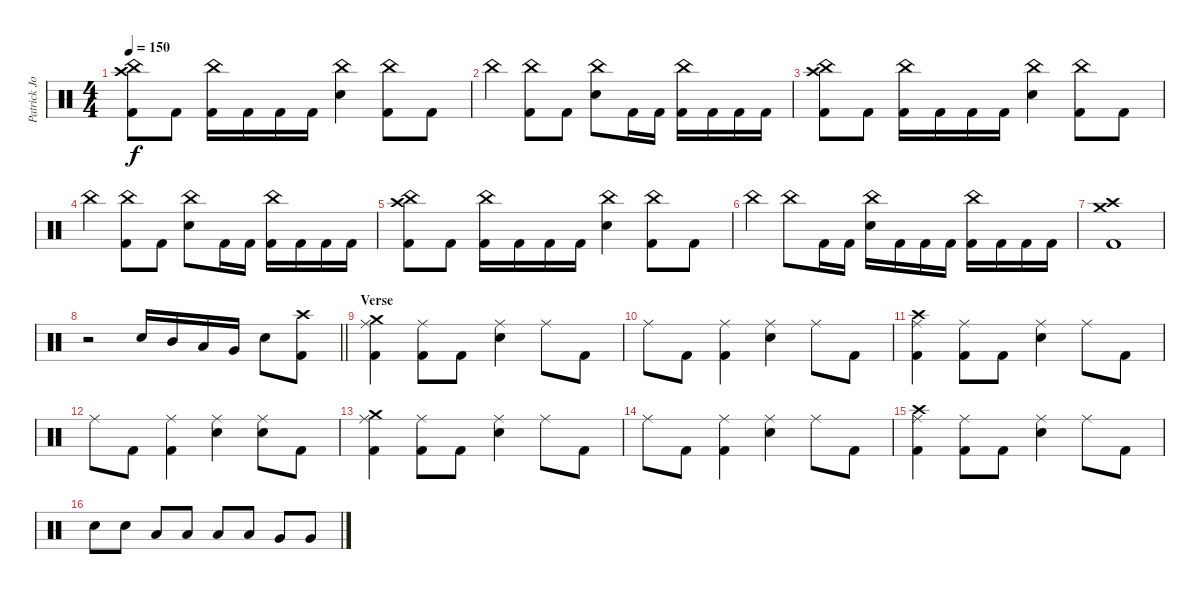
\track ("Patrick Johansson" "Patrick Jo") {instrument percussion}
\staff {score}
\articulation defaults
\ts (4 4)
\tempo 150
\clef neutral
\ks c
("Crash high (hit)" "China (hit)" "Kick (hit) 2").8{dy f} "Kick (hit) 2".8 ("China (hit)" "Kick (hit) 2").16 "Kick (hit) 2".16 "Kick (hit) 2".16 "Kick (hit) 2".16 ("China (hit)" "Snare (hit) 2").4 ("China (hit)" "Kick (hit) 2").8 "Kick (hit) 2".8 |
"China (hit)".4 ("China (hit)" "Kick (hit) 2").8 "Kick (hit) 2".8 ("China (hit)" "Snare (hit) 2").8 "Kick (hit) 2".16 "Kick (hit) 2".16 ("China (hit)" "Kick (hit) 2").16 "Kick (hit) 2".16 "Kick (hit) 2".16 "Kick (hit) 2".16 |
("Crash high (hit)" "China (hit)" "Kick (hit) 2").8 "Kick (hit) 2".8 ("China (hit)" "Kick (hit) 2").16 "Kick (hit) 2".16 "Kick (hit) 2".16 "Kick (hit) 2".16 ("China (hit)" "Snare (hit) 2").4 ("China (hit)" "Kick (hit) 2").8 "Kick (hit) 2".8 |
"China (hit)".4 ("China (hit)" "Kick (hit) 2").8 "Kick (hit) 2".8 ("China (hit)" "Snare (hit) 2").8 "Kick (hit) 2".16 "Kick (hit) 2".16 ("China (hit)" "Kick (hit) 2").16 "Kick (hit) 2".16 "Kick (hit) 2".16 "Kick (hit) 2".16 |
("Crash high (hit)" "China (hit)" "Kick (hit) 2").8 "Kick (hit) 2".8 ("China (hit)" "Kick (hit) 2").16 "Kick (hit) 2".16 "Kick (hit) 2".16 "Kick (hit) 2".16 ("China (hit)" "Snare (hit) 2").4 ("China (hit)" "Kick (hit) 2").8 "Kick (hit) 2".8 |
"China (hit)".4 "China (hit)".8 "Kick (hit) 2".16 "Kick (hit) 2".16 ("China (hit)" "Snare (hit) 2").16 "Kick (hit) 2".16 "Kick (hit) 2".16 "Kick (hit) 2".16 ("China (hit)" "Kick (hit) 2").16 "Kick (hit) 2".16 "Kick (hit) 2".16 "Kick (hit) 2".16 |
("Crash medium (hit)" "Crash high (hit)" "Kick (hit) 2").1 |
\barLineRight lightlight
r.2 "Snare (hit) 2".16 "Mid Tom (hit)".16 "Low Tom (hit)".16 "Very Low Tom (hit)".16 "Snare (hit) 2".8 ("Crash high (hit)" "Kick (hit) 2").8 |
\section ("" "Verse")
("Crash medium (hit)" "Ride (middle)" "Kick (hit) 2").4 ("Ride (middle)" "Kick (hit) 2").8 "Kick (hit) 2".8 ("Ride (middle)" "Snare (hit) 2").4 "Ride (middle)".8 "Kick (hit) 2".8 |
"Ride (middle)".8 "Kick (hit) 2".8 ("Ride (middle)" "Kick (hit) 2").4 ("Ride (middle)" "Snare (hit) 2").4 "Ride (middle)".8 "Kick (hit) 2".8 |
("Crash high (hit)" "Ride (middle)" "Kick (hit) 2").4 ("Ride (middle)" "Kick (hit) 2").8 "Kick (hit) 2".8 ("Ride (middle)" "Snare (hit) 2").4 "Ride (middle)".8 "Kick (hit) 2".8 |
"Ride (middle)".8 "Kick (hit) 2".8 ("Ride (middle)" "Kick (hit) 2").4 ("Ride (middle)" "Snare (hit) 2").4 ("Ride (middle)" "Snare (hit) 2").8 "Kick (hit) 2".8 |
("Crash medium (hit)" "Ride (middle)" "Kick (hit) 2").4 ("Ride (middle)" "Kick (hit) 2").8 "Kick (hit) 2".8 ("Ride (middle)" "Snare (hit) 2").4 "Ride (middle)".8 "Kick (hit) 2".8 |
"Ride (middle)".8 "Kick (hit) 2".8 ("Ride (middle)" "Kick (hit) 2").4 ("Ride (middle)" "Snare (hit) 2").4 "Ride (middle)".8 "Kick (hit) 2".8 |
("Crash high (hit)" "Ride (middle)" "Kick (hit) 2").4 ("Ride (middle)" "Kick (hit) 2").8 "Kick (hit) 2".8 ("Ride (middle)" "Snare (hit) 2").4 "Ride (middle)".8 "Kick (hit) 2".8 |
"Snare (hit) 2".8 "Snare (hit) 2".8 "Low Tom (hit)".8 "Low Tom (hit)".8 "Low Floor Tom (hit)".8 "Low Floor Tom (hit)".8 "Very Low Tom (hit)".8 "Very Low Tom (hit)".8
